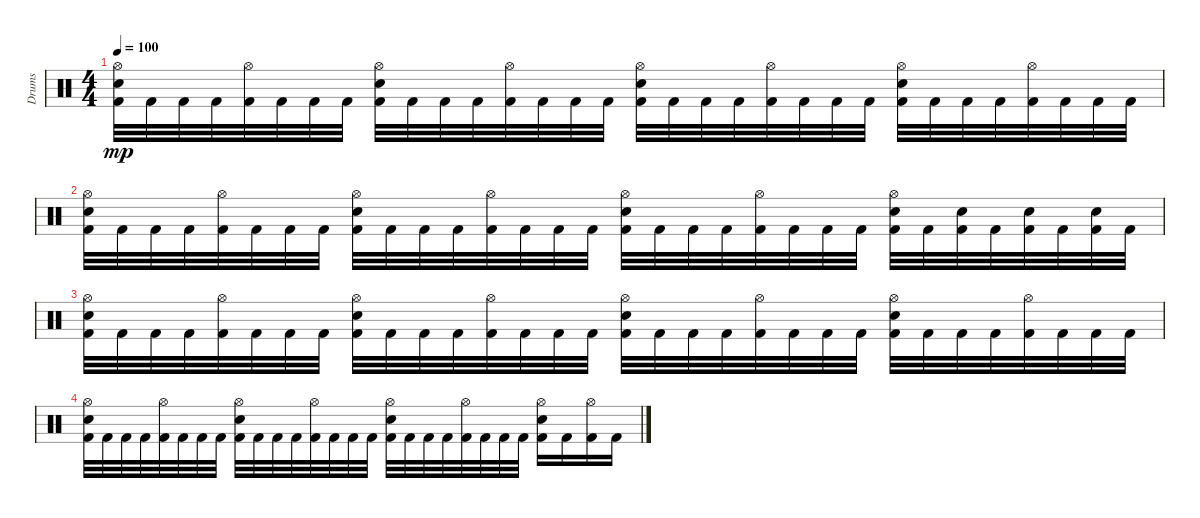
\track ("Drums" "Drums") {instrument percussion}
\staff {score}
\articulation defaults
\ts (4 4)
\tempo 100
\clef neutral
\ks c
("Hi-Hat (open)" "Electric Snare (hit)" "Kick (hit) 2").32{dy mp} "Kick (hit) 2".32 "Kick (hit) 2".32 "Kick (hit) 2".32 ("Hi-Hat (open)" "Kick (hit) 2").32 "Kick (hit) 2".32 "Kick (hit) 2".32 "Kick (hit) 2".32 ("Hi-Hat (open)" "Electric Snare (hit)" "Kick (hit) 2").32 "Kick (hit) 2".32 "Kick (hit) 2".32 "Kick (hit) 2".32 ("Hi-Hat (open)" "Kick (hit) 2").32 "Kick (hit) 2".32 "Kick (hit) 2".32 "Kick (hit) 2".32 ("Hi-Hat (open)" "Electric Snare (hit)" "Kick (hit) 2").32 "Kick (hit) 2".32 "Kick (hit) 2".32 "Kick (hit) 2".32 ("Hi-Hat (open)" "Kick (hit) 2").32 "Kick (hit) 2".32 "Kick (hit) 2".32 "Kick (hit) 2".32 ("Hi-Hat (open)" "Electric Snare (hit)" "Kick (hit) 2").32 "Kick (hit) 2".32 "Kick (hit) 2".32 "Kick (hit) 2".32 ("Hi-Hat (open)" "Kick (hit) 2").32 "Kick (hit) 2".32 "Kick (hit) 2".32 "Kick (hit) 2".32 |
("Hi-Hat (open)" "Electric Snare (hit)" "Kick (hit) 2").32 "Kick (hit) 2".32 "Kick (hit) 2".32 "Kick (hit) 2".32 ("Hi-Hat (open)" "Kick (hit) 2").32 "Kick (hit) 2".32 "Kick (hit) 2".32 "Kick (hit) 2".32 ("Hi-Hat (open)" "Electric Snare (hit)" "Kick (hit) 2").32 "Kick (hit) 2".32 "Kick (hit) 2".32 "Kick (hit) 2".32 ("Hi-Hat (open)" "Kick (hit) 2").32 "Kick (hit) 2".32 "Kick (hit) 2".32 "Kick (hit) 2".32 ("Hi-Hat (open)" "Electric Snare (hit)" "Kick (hit) 2").32 "Kick (hit) 2".32 "Kick (hit) 2".32 "Kick (hit) 2".32 ("Hi-Hat (open)" "Kick (hit) 2").32 "Kick (hit) 2".32 "Kick (hit) 2".32 "Kick (hit) 2".32 ("Hi-Hat (open)" "Electric Snare (hit)" "Kick (hit) 2").32 "Kick (hit) 2".32 ("Electric Snare (hit)" "Kick (hit) 2").32 "Kick (hit) 2".32 ("Electric Snare (hit)" "Kick (hit) 2").32 "Kick (hit) 2".32 ("Electric Snare (hit)" "Kick (hit) 2").32 "Kick (hit) 2".32 |
("Hi-Hat (open)" "Electric Snare (hit)" "Kick (hit) 2").32 "Kick (hit) 2".32 "Kick (hit) 2".32 "Kick (hit) 2".32 ("Hi-Hat (open)" "Kick (hit) 2").32 "Kick (hit) 2".32 "Kick (hit) 2".32 "Kick (hit) 2".32 ("Hi-Hat (open)" "Electric Snare (hit)" "Kick (hit) 2").32 "Kick (hit) 2".32 "Kick (hit) 2".32 "Kick (hit) 2".32 ("Hi-Hat (open)" "Kick (hit) 2").32 "Kick (hit) 2".32 "Kick (hit) 2".32 "Kick (hit) 2".32 ("Hi-Hat (open)" "Electric Snare (hit)" "Kick (hit) 2").32 "Kick (hit) 2".32 "Kick (hit) 2".32 "Kick (hit) 2".32 ("Hi-Hat (open)" "Kick (hit) 2").32 "Kick (hit) 2".32 "Kick (hit) 2".32 "Kick (hit) 2".32 ("Hi-Hat (open)" "Electric Snare (hit)" "Kick (hit) 2").32 "Kick (hit) 2".32 "Kick (hit) 2".32 "Kick (hit) 2".32 ("Hi-Hat (open)" "Kick (hit) 2").32 "Kick (hit) 2".32 "Kick (hit) 2".32 "Kick (hit) 2".32 |
("Hi-Hat (open)" "Electric Snare (hit)" "Kick (hit) 2").32 "Kick (hit) 2".32 "Kick (hit) 2".32 "Kick (hit) 2".32 ("Hi-Hat (open)" "Kick (hit) 2").32 "Kick (hit) 2".32 "Kick (hit) 2".32 "Kick (hit) 2".32 ("Hi-Hat (open)" "Electric Snare (hit)" "Kick (hit) 2").32 "Kick (hit) 2".32 "Kick (hit) 2".32 "Kick (hit) 2".32 ("Hi-Hat (open)" "Kick (hit) 2").32 "Kick (hit) 2".32 "Kick (hit) 2".32 "Kick (hit) 2".32 ("Hi-Hat (open)" "Electric Snare (hit)" "Kick (hit) 2").32 "Kick (hit) 2".32 "Kick (hit) 2".32 "Kick (hit) 2".32 ("Hi-Hat (open)" "Kick (hit) 2").32 "Kick (hit) 2".32 "Kick (hit) 2".32 "Kick (hit) 2".32 ("Hi-Hat (open)" "Electric Snare (hit)" "Kick (hit) 2").16 "Kick (hit) 2".16 ("Hi-Hat (open)" "Kick (hit) 2").16 "Kick (hit) 2".16
